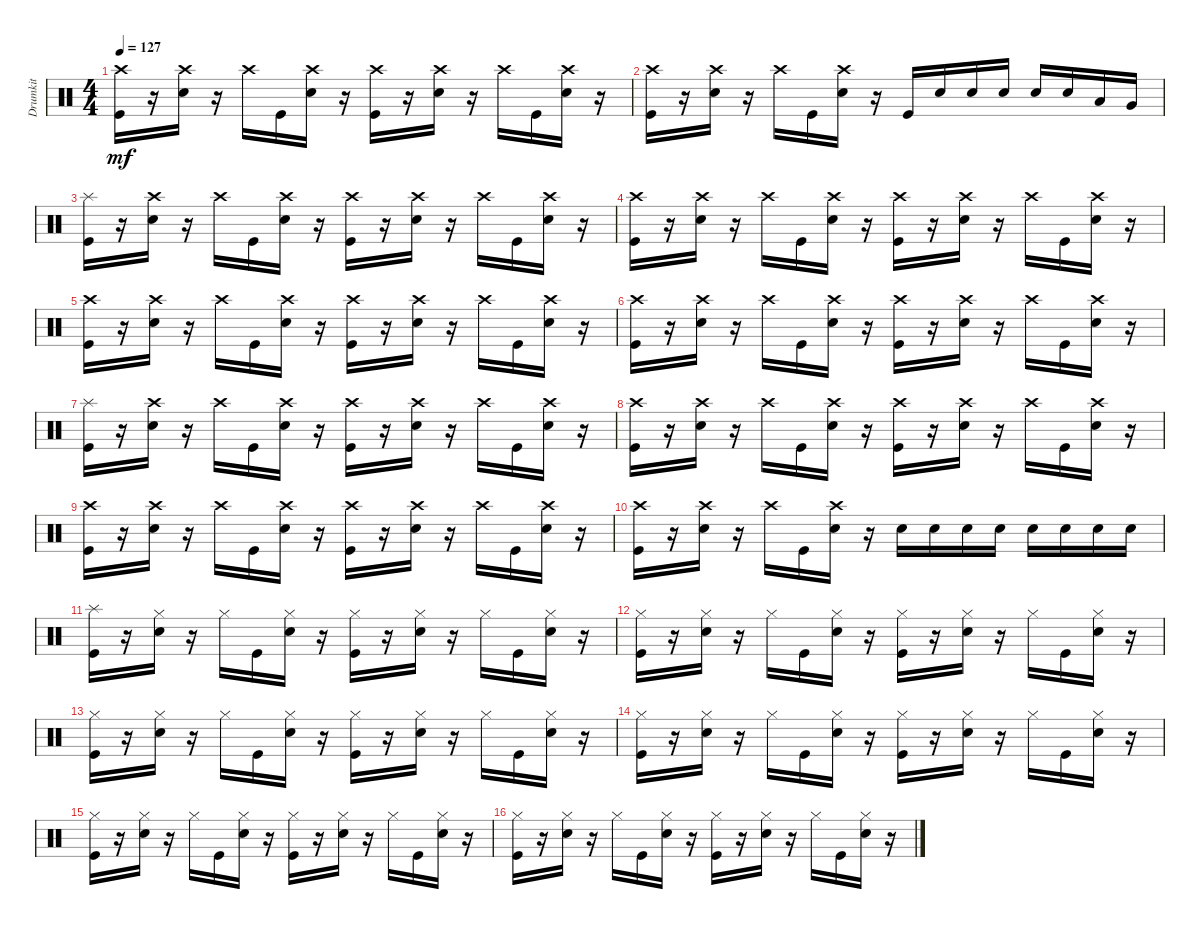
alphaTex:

\track ("Drumkit" "Drumkit") {instrument percussion}
\staff {score}
\articulation defaults
\ts (4 4)
\tempo 127
\clef neutral
\ks c
("Kick (hit)" "Crash high (hit)").16{dy mf} r.16 ("Snare (hit) 2" "Crash high (hit)").16 r.16 "Crash high (hit)".16 "Kick (hit)".16 ("Snare (hit) 2" "Crash high (hit)").16 r.16 ("Kick (hit)" "Crash high (hit)").16 r.16 ("Snare (hit) 2" "Crash high (hit)").16 r.16 "Crash high (hit)".16 "Kick (hit)".16 ("Snare (hit) 2" "Crash high (hit)").16 r.16 |
("Kick (hit)" "Crash high (hit)").16 r.16 ("Snare (hit) 2" "Crash high (hit)").16 r.16 "Crash high (hit)".16 "Kick (hit)".16 ("Snare (hit) 2" "Crash high (hit)").16 r.16 "Kick (hit)".16 "Snare (hit) 2".16 "Snare (hit) 2".16 "Snare (hit) 2".16 "Snare (hit) 2".16 "Snare (hit) 2".16 "Low Tom (hit)".16 "Very Low Tom (hit)".16 |
("Kick (hit)" "Splash (hit)").16 r.16 ("Snare (hit) 2" "Crash high (hit)").16 r.16 "Crash high (hit)".16 "Kick (hit)".16 ("Snare (hit) 2" "Crash high (hit)").16 r.16 ("Kick (hit)" "Crash high (hit)").16 r.16 ("Snare (hit) 2" "Crash high (hit)").16 r.16 "Crash high (hit)".16 "Kick (hit)".16 ("Snare (hit) 2" "Crash high (hit)").16 r.16 |
("Kick (hit)" "Crash high (hit)").16 r.16 ("Snare (hit) 2" "Crash high (hit)").16 r.16 "Crash high (hit)".16 "Kick (hit)".16 ("Snare (hit) 2" "Crash high (hit)").16 r.16 ("Kick (hit)" "Crash high (hit)").16 r.16 ("Snare (hit) 2" "Crash high (hit)").16 r.16 "Crash high (hit)".16 "Kick (hit)".16 ("Snare (hit) 2" "Crash high (hit)").16 r.16 |
("Kick (hit)" "Crash high (hit)").16 r.16 ("Snare (hit) 2" "Crash high (hit)").16 r.16 "Crash high (hit)".16 "Kick (hit)".16 ("Snare (hit) 2" "Crash high (hit)").16 r.16 ("Kick (hit)" "Crash high (hit)").16 r.16 ("Snare (hit) 2" "Crash high (hit)").16 r.16 "Crash high (hit)".16 "Kick (hit)".16 ("Snare (hit) 2" "Crash high (hit)").16 r.16 |
("Kick (hit)" "Crash high (hit)").16 r.16 ("Snare (hit) 2" "Crash high (hit)").16 r.16 "Crash high (hit)".16 "Kick (hit)".16 ("Snare (hit) 2" "Crash high (hit)").16 r.16 ("Kick (hit)" "Crash high (hit)").16 r.16 ("Snare (hit) 2" "Crash high (hit)").16 r.16 "Crash high (hit)".16 "Kick (hit)".16 ("Snare (hit) 2" "Crash high (hit)").16 r.16 |
("Kick (hit)" "Splash (hit)").16 r.16 ("Snare (hit) 2" "Crash high (hit)").16 r.16 "Crash high (hit)".16 "Kick (hit)".16 ("Snare (hit) 2" "Crash high (hit)").16 r.16 ("Kick (hit)" "Crash high (hit)").16 r.16 ("Snare (hit) 2" "Crash high (hit)").16 r.16 "Crash high (hit)".16 "Kick (hit)".16 ("Snare (hit) 2" "Crash high (hit)").16 r.16 |
("Kick (hit)" "Crash high (hit)").16 r.16 ("Snare (hit) 2" "Crash high (hit)").16 r.16 "Crash high (hit)".16 "Kick (hit)".16 ("Snare (hit) 2" "Crash high (hit)").16 r.16 ("Kick (hit)" "Crash high (hit)").16 r.16 ("Snare (hit) 2" "Crash high (hit)").16 r.16 "Crash high (hit)".16 "Kick (hit)".16 ("Snare (hit) 2" "Crash high (hit)").16 r.16 |
("Kick (hit)" "Crash high (hit)").16 r.16 ("Snare (hit) 2" "Crash high (hit)").16 r.16 "Crash high (hit)".16 "Kick (hit)".16 ("Snare (hit) 2" "Crash high (hit)").16 r.16 ("Kick (hit)" "Crash high (hit)").16 r.16 ("Snare (hit) 2" "Crash high (hit)").16 r.16 "Crash high (hit)".16 "Kick (hit)".16 ("Snare (hit) 2" "Crash high (hit)").16 r.16 |
("Kick (hit)" "Crash high (hit)").16 r.16 ("Snare (hit) 2" "Crash high (hit)").16 r.16 "Crash high (hit)".16 "Kick (hit)".16 ("Snare (hit) 2" "Crash high (hit)").16 r.16 "Snare (hit) 2".16 "Snare (hit) 2".16 "Snare (hit) 2".16 "Snare (hit) 2".16 "Snare (hit) 2".16 "Snare (hit) 2".16 "Snare (hit) 2".16 "Snare (hit) 2".16 |
("Kick (hit)" "Splash (hit)").16 r.16 ("Snare (hit) 2" "Hi-Hat (closed)").16 r.16 "Hi-Hat (closed)".16 "Kick (hit)".16 ("Snare (hit) 2" "Hi-Hat (closed)").16 r.16 ("Kick (hit)" "Hi-Hat (closed)").16 r.16 ("Snare (hit) 2" "Hi-Hat (closed)").16 r.16 "Hi-Hat (closed)".16 "Kick (hit)".16 ("Snare (hit) 2" "Hi-Hat (closed)").16 r.16 |
("Kick (hit)" "Hi-Hat (closed)").16 r.16 ("Snare (hit) 2" "Hi-Hat (closed)").16 r.16 "Hi-Hat (closed)".16 "Kick (hit)".16 ("Snare (hit) 2" "Hi-Hat (closed)").16 r.16 ("Kick (hit)" "Hi-Hat (closed)").16 r.16 ("Snare (hit) 2" "Hi-Hat (closed)").16 r.16 "Hi-Hat (closed)".16 "Kick (hit)".16 ("Snare (hit) 2" "Hi-Hat (closed)").16 r.16 |
("Kick (hit)" "Hi-Hat (closed)").16 r.16 ("Snare (hit) 2" "Hi-Hat (closed)").16 r.16 "Hi-Hat (closed)".16 "Kick (hit)".16 ("Snare (hit) 2" "Hi-Hat (closed)").16 r.16 ("Kick (hit)" "Hi-Hat (closed)").16 r.16 ("Snare (hit) 2" "Hi-Hat (closed)").16 r.16 "Hi-Hat (closed)".16 "Kick (hit)".16 ("Snare (hit) 2" "Hi-Hat (closed)").16 r.16 |
("Kick (hit)" "Hi-Hat (closed)").16 r.16 ("Snare (hit) 2" "Hi-Hat (closed)").16 r.16 "Hi-Hat (closed)".16 "Kick (hit)".16 ("Snare (hit) 2" "Hi-Hat (closed)").16 r.16 ("Kick (hit)" "Hi-Hat (closed)").16 r.16 ("Snare (hit) 2" "Hi-Hat (closed)").16 r.16 "Hi-Hat (closed)".16 "Kick (hit)".16 ("Snare (hit) 2" "Hi-Hat (closed)").16 r.16 |
("Kick (hit)" "Hi-Hat (closed)").16 r.16 ("Snare (hit) 2" "Hi-Hat (closed)").16 r.16 "Hi-Hat (closed)".16 "Kick (hit)".16 ("Snare (hit) 2" "Hi-Hat (closed)").16 r.16 ("Kick (hit)" "Hi-Hat (closed)").16 r.16 ("Snare (hit) 2" "Hi-Hat (closed)").16 r.16 "Hi-Hat (closed)".16 "Kick (hit)".16 ("Snare (hit) 2" "Hi-Hat (closed)").16 r.16 |
("Kick (hit)" "Hi-Hat (closed)").16 r.16 ("Snare (hit) 2" "Hi-Hat (closed)").16 r.16 "Hi-Hat (closed)".16 "Kick (hit)".16 ("Snare (hit) 2" "Hi-Hat (closed)").16 r.16 ("Kick (hit)" "Hi-Hat (closed)").16 r.16 ("Snare (hit) 2" "Hi-Hat (closed)").16 r.16 "Hi-Hat (closed)".16 "Kick (hit)".16 ("Snare (hit) 2" "Hi-Hat (closed)").16 r.16
